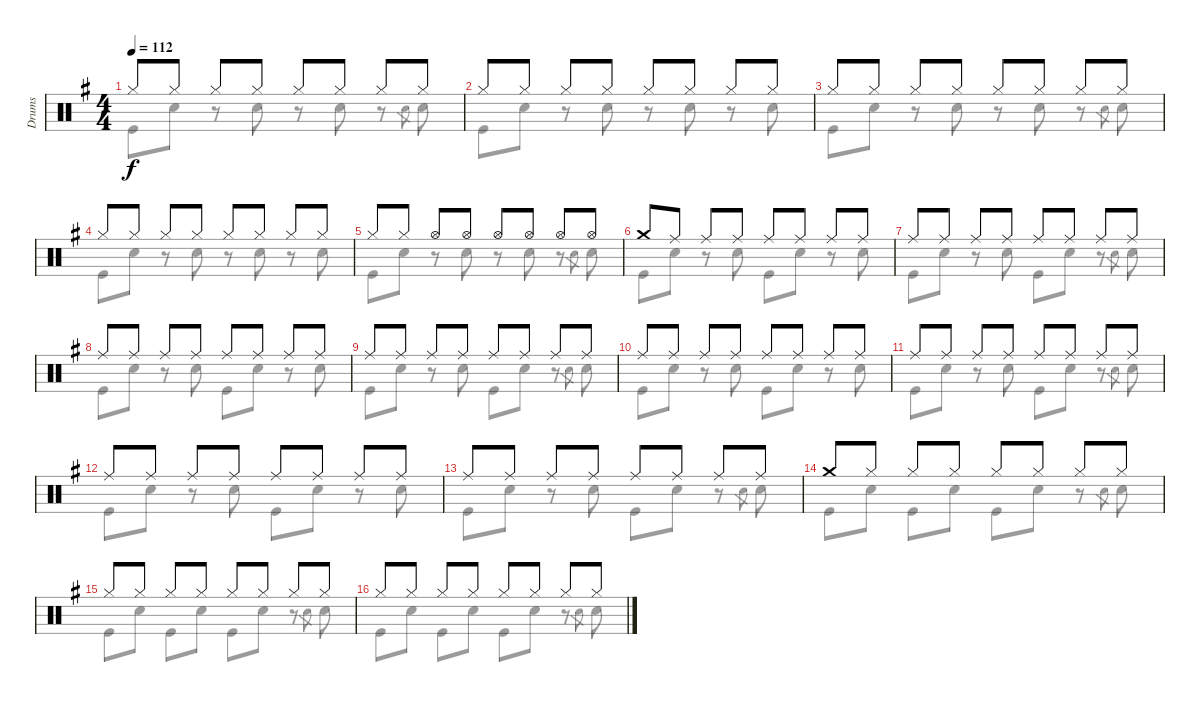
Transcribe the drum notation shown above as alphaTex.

\track ("Drums" "Drums") {instrument percussion}
\staff {score}
\articulation defaults
\voice
\ts (4 4)
\tempo 112
\clef neutral
\ks g "Hi-Hat (closed)".8{dy f} "Hi-Hat (closed)".8 "Hi-Hat (closed)".8 "Hi-Hat (closed)".8 "Hi-Hat (closed)".8 "Hi-Hat (closed)".8 "Hi-Hat (closed)".8 "Hi-Hat (closed)".8
|
"Hi-Hat (closed)".8 "Hi-Hat (closed)".8 "Hi-Hat (closed)".8 "Hi-Hat (closed)".8 "Hi-Hat (closed)".8 "Hi-Hat (closed)".8 "Hi-Hat (closed)".8 "Hi-Hat (closed)".8 |
"Hi-Hat (closed)".8 "Hi-Hat (closed)".8 "Hi-Hat (closed)".8 "Hi-Hat (closed)".8 "Hi-Hat (closed)".8 "Hi-Hat (closed)".8 "Hi-Hat (closed)".8 "Hi-Hat (closed)".8 |
"Hi-Hat (closed)".8 "Hi-Hat (closed)".8 "Hi-Hat (closed)".8 "Hi-Hat (closed)".8 "Hi-Hat (closed)".8 "Hi-Hat (closed)".8 "Hi-Hat (closed)".8 "Hi-Hat (closed)".8 |
"Hi-Hat (closed)".8 "Hi-Hat (closed)".8 "Hi-Hat (open)".8 "Hi-Hat (open)".8 "Hi-Hat (open)".8 "Hi-Hat (open)".8 "Hi-Hat (open)".8 "Hi-Hat (open)".8 |
"Crash medium (hit)".8 "Ride (middle)".8 "Ride (middle)".8 "Ride (middle)".8 "Ride (middle)".8 "Ride (middle)".8 "Ride (middle)".8 "Ride (middle)".8 |
"Ride (middle)".8 "Ride (middle)".8 "Ride (middle)".8 "Ride (middle)".8 "Ride (middle)".8 "Ride (middle)".8 "Ride (middle)".8 "Ride (middle)".8 |
"Ride (middle)".8 "Ride (middle)".8 "Ride (middle)".8 "Ride (middle)".8 "Ride (middle)".8 "Ride (middle)".8 "Ride (middle)".8 "Ride (middle)".8 |
"Ride (middle)".8 "Ride (middle)".8 "Ride (middle)".8 "Ride (middle)".8 "Ride (middle)".8 "Ride (middle)".8 "Ride (middle)".8 "Ride (middle)".8 |
"Ride (middle)".8 "Ride (middle)".8 "Ride (middle)".8 "Ride (middle)".8 "Ride (middle)".8 "Ride (middle)".8 "Ride (middle)".8 "Ride (middle)".8 |
"Ride (middle)".8 "Ride (middle)".8 "Ride (middle)".8 "Ride (middle)".8 "Ride (middle)".8 "Ride (middle)".8 "Ride (middle)".8 "Ride (middle)".8 |
"Ride (middle)".8 "Ride (middle)".8 "Ride (middle)".8 "Ride (middle)".8 "Ride (middle)".8 "Ride (middle)".8 "Ride (middle)".8 "Ride (middle)".8 |
"Ride (middle)".8 "Ride (middle)".8 "Ride (middle)".8 "Ride (middle)".8 "Ride (middle)".8 "Ride (middle)".8 "Ride (middle)".8 "Ride (middle)".8 |
"Crash medium (hit)".8 "Hi-Hat (closed)".8 "Hi-Hat (closed)".8 "Hi-Hat (closed)".8 "Hi-Hat (closed)".8 "Hi-Hat (closed)".8 "Hi-Hat (closed)".8 "Hi-Hat (closed)".8 |
"Hi-Hat (closed)".8 "Hi-Hat (closed)".8 "Hi-Hat (closed)".8 "Hi-Hat (closed)".8 "Hi-Hat (closed)".8 "Hi-Hat (closed)".8 "Hi-Hat (closed)".8 "Hi-Hat (closed)".8 |
"Hi-Hat (closed)".8 "Hi-Hat (closed)".8 "Hi-Hat (closed)".8 "Hi-Hat (closed)".8 "Hi-Hat (closed)".8 "Hi-Hat (closed)".8 "Hi-Hat (closed)".8 "Hi-Hat (closed)".8
\voice
\clef neutral
\ottava regular
\simile none
\ks g "Kick (hit)".8{dy f} "Snare (hit) 2".8
r.8 "Snare (hit) 2".8 r.8 "Snare (hit) 2".8 r.8 "Snare (hit) 2".8{gr} "Snare (hit) 2".8 |
"Kick (hit)".8 "Snare (hit) 2".8 r.8 "Snare (hit) 2".8 r.8 "Snare (hit) 2".8 r.8 "Snare (hit) 2".8 |
"Kick (hit)".8 "Snare (hit) 2".8 r.8 "Snare (hit) 2".8 r.8 "Snare (hit) 2".8 r.8 "Snare (hit) 2".8{gr} "Snare (hit) 2".8 |
"Kick (hit)".8 "Snare (hit) 2".8 r.8 "Snare (hit) 2".8 r.8 "Snare (hit) 2".8 r.8 "Snare (hit) 2".8 |
"Kick (hit)".8 "Snare (hit) 2".8 r.8 "Snare (hit) 2".8 r.8 "Snare (hit) 2".8 r.8 "Snare (hit) 2".8{gr} "Snare (hit) 2".8 |
"Kick (hit)".8 "Snare (hit) 2".8 r.8 "Snare (hit) 2".8 "Kick (hit)".8 "Snare (hit) 2".8 r.8 "Snare (hit) 2".8 |
"Kick (hit)".8 "Snare (hit) 2".8 r.8 "Snare (hit) 2".8 "Kick (hit)".8 "Snare (hit) 2".8 r.8 "Snare (hit) 2".8{gr} "Snare (hit) 2".8 |
"Kick (hit)".8 "Snare (hit) 2".8 r.8 "Snare (hit) 2".8 "Kick (hit)".8 "Snare (hit) 2".8 r.8 "Snare (hit) 2".8 |
"Kick (hit)".8 "Snare (hit) 2".8 r.8 "Snare (hit) 2".8 "Kick (hit)".8 "Snare (hit) 2".8 r.8 "Snare (hit) 2".8{gr} "Snare (hit) 2".8 |
"Kick (hit)".8 "Snare (hit) 2".8 r.8 "Snare (hit) 2".8 "Kick (hit)".8 "Snare (hit) 2".8 r.8 "Snare (hit) 2".8 |
"Kick (hit)".8 "Snare (hit) 2".8 r.8 "Snare (hit) 2".8 "Kick (hit)".8 "Snare (hit) 2".8 r.8 "Snare (hit) 2".8{gr} "Snare (hit) 2".8 |
"Kick (hit)".8 "Snare (hit) 2".8 r.8 "Snare (hit) 2".8 "Kick (hit)".8 "Snare (hit) 2".8 r.8 "Snare (hit) 2".8 |
"Kick (hit)".8 "Snare (hit) 2".8 r.8 "Snare (hit) 2".8 "Kick (hit)".8 "Snare (hit) 2".8 r.8 "Snare (hit) 2".8{gr} "Snare (hit) 2".8 |
"Kick (hit)".8 "Snare (hit) 2".8 "Kick (hit)".8 "Snare (hit) 2".8 "Kick (hit)".8 "Snare (hit) 2".8 r.8 "Snare (hit) 2".8{gr} "Snare (hit) 2".8 |
"Kick (hit)".8 "Snare (hit) 2".8 "Kick (hit)".8 "Snare (hit) 2".8 "Kick (hit)".8 "Snare (hit) 2".8 r.8 "Snare (hit) 2".8{gr} "Snare (hit) 2".8 |
"Kick (hit)".8 "Snare (hit) 2".8 "Kick (hit)".8 "Snare (hit) 2".8 "Kick (hit)".8 "Snare (hit) 2".8 r.8 "Snare (hit) 2".8{gr} "Snare (hit) 2".8
